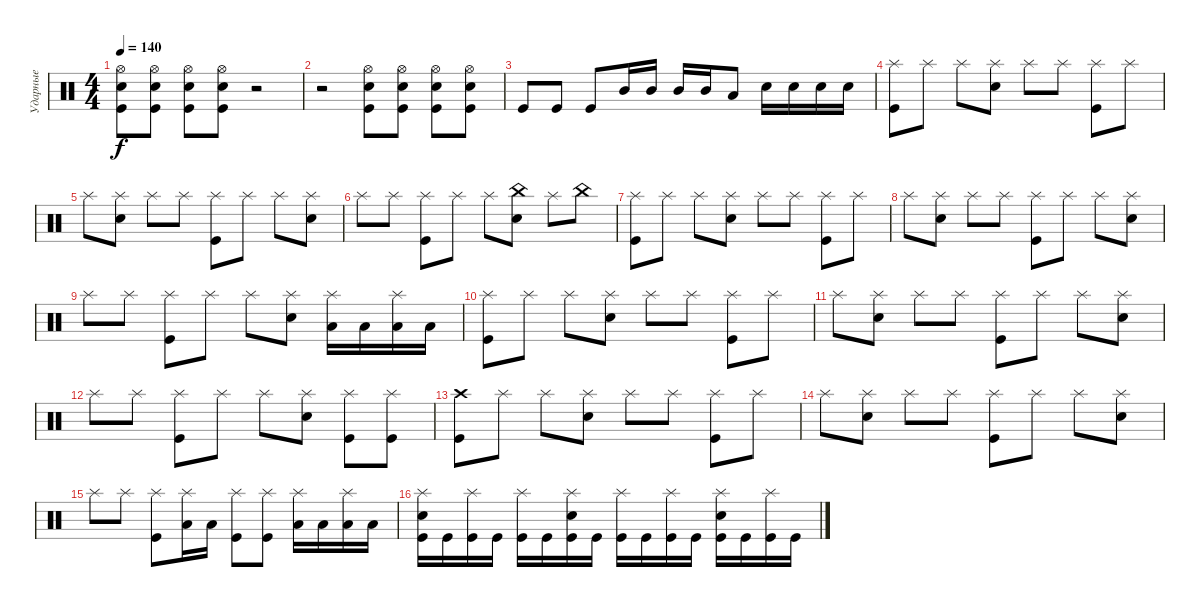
\track ("Ударные" "Ударные") {instrument percussion}
\staff {score}
\articulation defaults
\ts (4 4)
\tempo 140
\clef neutral
\ks c
("Kick (hit)" "Snare (hit) 2" "Hi-Hat (open)").8{dy f} ("Kick (hit)" "Snare (hit) 2" "Hi-Hat (open)").8 ("Kick (hit)" "Snare (hit) 2" "Hi-Hat (open)").8 ("Kick (hit)" "Snare (hit) 2" "Hi-Hat (open)").8 r.2 |
r.2 ("Kick (hit)" "Snare (hit) 2" "Hi-Hat (open)").8 ("Kick (hit)" "Snare (hit) 2" "Hi-Hat (open)").8 ("Kick (hit)" "Snare (hit) 2" "Hi-Hat (open)").8 ("Kick (hit)" "Snare (hit) 2" "Hi-Hat (open)").8 |
"Kick (hit)".8 "Kick (hit)".8 "Kick (hit)".8 "Mid Tom (hit)".16 "Mid Tom (hit)".16 "Mid Tom (hit)".16 "Mid Tom (hit)".16 "Low Tom (hit)".8 "Snare (hit) 2".16 "Snare (hit) 2".16 "Snare (hit) 2".16 "Snare (hit) 2".16 |
("Kick (hit)" "Splash (hit)").8 "Splash (hit)".8 "Splash (hit)".8 ("Snare (hit) 2" "Splash (hit)").8 "Splash (hit)".8 "Splash (hit)".8 ("Kick (hit)" "Splash (hit)").8 "Splash (hit)".8 |
"Splash (hit)".8 ("Snare (hit) 2" "Splash (hit)").8 "Splash (hit)".8 "Splash (hit)".8 ("Kick (hit)" "Splash (hit)").8 "Splash (hit)".8 "Splash (hit)".8 ("Snare (hit) 2" "Splash (hit)").8 |
"Splash (hit)".8 "Splash (hit)".8 ("Kick (hit)" "Splash (hit)").8 "Splash (hit)".8 "Splash (hit)".8 ("Snare (hit) 2" "China (hit)").8 "Splash (hit)".8 "China (hit)".8 |
("Kick (hit)" "Splash (hit)").8 "Splash (hit)".8 "Splash (hit)".8 ("Snare (hit) 2" "Splash (hit)").8 "Splash (hit)".8 "Splash (hit)".8 ("Kick (hit)" "Splash (hit)").8 "Splash (hit)".8 |
"Splash (hit)".8 ("Snare (hit) 2" "Splash (hit)").8 "Splash (hit)".8 "Splash (hit)".8 ("Kick (hit)" "Splash (hit)").8 "Splash (hit)".8 "Splash (hit)".8 ("Snare (hit) 2" "Splash (hit)").8 |
"Splash (hit)".8 "Splash (hit)".8 ("Kick (hit)" "Splash (hit)").8 "Splash (hit)".8 "Splash (hit)".8 ("Snare (hit) 2" "Splash (hit)").8 ("Low Tom (hit)" "Splash (hit)").16 "Low Tom (hit)".16 ("Low Tom (hit)" "Splash (hit)").16 "Low Tom (hit)".16 |
("Kick (hit)" "Splash (hit)").8 "Splash (hit)".8 "Splash (hit)".8 ("Snare (hit) 2" "Splash (hit)").8 "Splash (hit)".8 "Splash (hit)".8 ("Kick (hit)" "Splash (hit)").8 "Splash (hit)".8 |
"Splash (hit)".8 ("Snare (hit) 2" "Splash (hit)").8 "Splash (hit)".8 "Splash (hit)".8 ("Kick (hit)" "Splash (hit)").8 "Splash (hit)".8 "Splash (hit)".8 ("Snare (hit) 2" "Splash (hit)").8 |
"Splash (hit)".8 "Splash (hit)".8 ("Kick (hit)" "Splash (hit)").8 "Splash (hit)".8 "Splash (hit)".8 ("Snare (hit) 2" "Splash (hit)").8 ("Kick (hit)" "Splash (hit)").8 ("Kick (hit)" "Splash (hit)").8 |
("Kick (hit)" "Crash high (hit)").8 "Splash (hit)".8 "Splash (hit)".8 ("Snare (hit) 2" "Splash (hit)").8 "Splash (hit)".8 "Splash (hit)".8 ("Kick (hit)" "Splash (hit)").8 "Splash (hit)".8 |
"Splash (hit)".8 ("Snare (hit) 2" "Splash (hit)").8 "Splash (hit)".8 "Splash (hit)".8 ("Kick (hit)" "Splash (hit)").8 "Splash (hit)".8 "Splash (hit)".8 ("Snare (hit) 2" "Splash (hit)").8 |
"Splash (hit)".8 "Splash (hit)".8 ("Kick (hit)" "Splash (hit)").8 ("Low Tom (hit)" "Splash (hit)").16 "Low Tom (hit)".16 ("Kick (hit)" "Splash (hit)").8 ("Kick (hit)" "Splash (hit)").8 ("Low Tom (hit)" "Splash (hit)").16 "Low Tom (hit)".16 ("Low Tom (hit)" "Splash (hit)").16 "Low Tom (hit)".16 |
("Kick (hit)" "Snare (hit) 2" "Splash (hit)").16 "Kick (hit)".16 ("Kick (hit)" "Splash (hit)").16 "Kick (hit)".16 ("Kick (hit)" "Splash (hit)").16 "Kick (hit)".16 ("Kick (hit)" "Snare (hit) 2" "Splash (hit)").16 "Kick (hit)".16 ("Kick (hit)" "Splash (hit)").16 "Kick (hit)".16 ("Kick (hit)" "Splash (hit)").16 "Kick (hit)".16 ("Kick (hit)" "Snare (hit) 2" "Splash (hit)").16 "Kick (hit)".16 ("Kick (hit)" "Splash (hit)").16 "Kick (hit)".16
